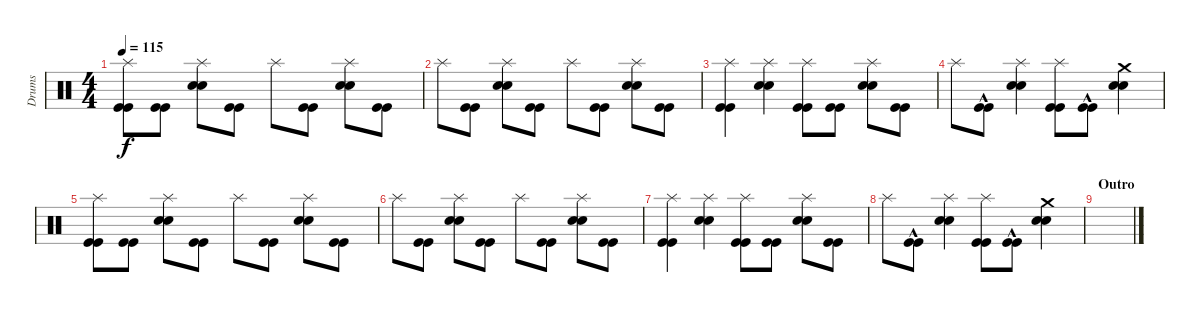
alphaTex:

\track ("Drums" "Drums") {instrument percussion}
\staff {score}
\articulation defaults
\ts (4 4)
\tempo 115
\clef neutral
\ks c
("Kick (hit)" "Kick (hit)" "Splash (hit)").8{dy f} ("Kick (hit)" "Kick (hit)").8 ("Snare (hit) 2" "Snare (hit) 2" "Splash (hit)").8 ("Kick (hit)" "Kick (hit)").8 "Splash (hit)".8 ("Kick (hit)" "Kick (hit)").8 ("Snare (hit) 2" "Snare (hit) 2" "Splash (hit)").8 ("Kick (hit)" "Kick (hit)").8 |
"Splash (hit)".8 ("Kick (hit)" "Kick (hit)").8 ("Snare (hit) 2" "Snare (hit) 2" "Splash (hit)").8 ("Kick (hit)" "Kick (hit)").8 "Splash (hit)".8 ("Kick (hit)" "Kick (hit)").8 ("Snare (hit) 2" "Snare (hit) 2" "Splash (hit)").8 ("Kick (hit)" "Kick (hit)").8 |
("Kick (hit)" "Kick (hit)" "Splash (hit)").4 ("Snare (hit) 2" "Snare (hit) 2" "Splash (hit)").4 ("Kick (hit)" "Kick (hit)" "Splash (hit)").8 ("Kick (hit)" "Kick (hit)").8 ("Snare (hit) 2" "Snare (hit) 2" "Splash (hit)").8 ("Kick (hit)" "Kick (hit)").8 |
"Splash (hit)".8 ("Kick (hit)"{hac} "Kick (hit)"{hac}).8 ("Snare (hit) 2" "Snare (hit) 2" "Splash (hit)").4 ("Kick (hit)" "Kick (hit)" "Splash (hit)").8 ("Kick (hit)"{hac} "Kick (hit)"{hac}).8 ("Snare (hit) 2" "Snare (hit) 2" "Crash medium (hit)").4 |
("Kick (hit)" "Kick (hit)" "Splash (hit)").8 ("Kick (hit)" "Kick (hit)").8 ("Snare (hit) 2" "Snare (hit) 2" "Splash (hit)").8 ("Kick (hit)" "Kick (hit)").8 "Splash (hit)".8 ("Kick (hit)" "Kick (hit)").8 ("Snare (hit) 2" "Snare (hit) 2" "Splash (hit)").8 ("Kick (hit)" "Kick (hit)").8 |
"Splash (hit)".8 ("Kick (hit)" "Kick (hit)").8 ("Snare (hit) 2" "Snare (hit) 2" "Splash (hit)").8 ("Kick (hit)" "Kick (hit)").8 "Splash (hit)".8 ("Kick (hit)" "Kick (hit)").8 ("Snare (hit) 2" "Snare (hit) 2" "Splash (hit)").8 ("Kick (hit)" "Kick (hit)").8 |
("Kick (hit)" "Kick (hit)" "Splash (hit)").4 ("Snare (hit) 2" "Snare (hit) 2" "Splash (hit)").4 ("Kick (hit)" "Kick (hit)" "Splash (hit)").8 ("Kick (hit)" "Kick (hit)").8 ("Snare (hit) 2" "Snare (hit) 2" "Splash (hit)").8 ("Kick (hit)" "Kick (hit)").8 |
"Splash (hit)".8 ("Kick (hit)"{hac} "Kick (hit)"{hac}).8 ("Snare (hit) 2" "Snare (hit) 2" "Splash (hit)").4 ("Kick (hit)" "Kick (hit)" "Splash (hit)").8 ("Kick (hit)"{hac} "Kick (hit)"{hac}).8 ("Snare (hit) 2" "Snare (hit) 2" "Crash medium (hit)").4 |
\section ("" "Outro")
